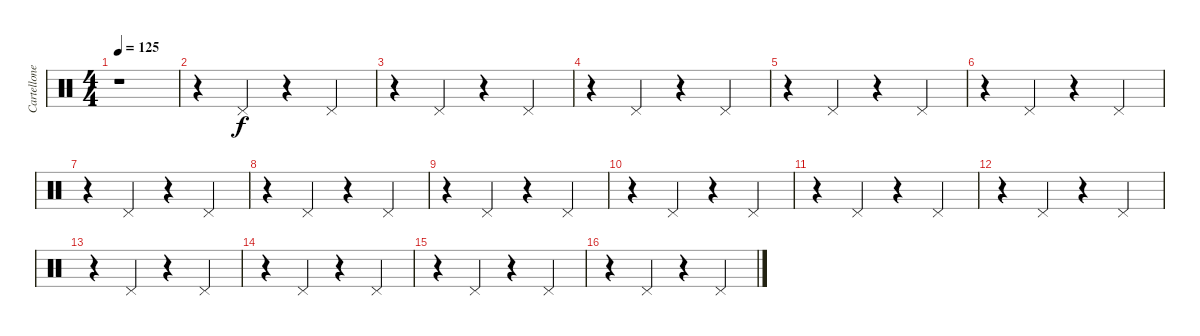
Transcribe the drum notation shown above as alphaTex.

\track ("Cartellone" "Cartellone") {instrument percussion}
\staff {score}
\articulation defaults
\ts (4 4)
\tempo 125
\clef neutral
\ks c
r.1{dy f} |
r.4 "Pedal Hi-Hat (hit)".4 r.4 "Pedal Hi-Hat (hit)".4 |
r.4 "Pedal Hi-Hat (hit)".4 r.4 "Pedal Hi-Hat (hit)".4 |
r.4 "Pedal Hi-Hat (hit)".4 r.4 "Pedal Hi-Hat (hit)".4 |
r.4 "Pedal Hi-Hat (hit)".4 r.4 "Pedal Hi-Hat (hit)".4 |
r.4 "Pedal Hi-Hat (hit)".4 r.4 "Pedal Hi-Hat (hit)".4 |
r.4 "Pedal Hi-Hat (hit)".4 r.4 "Pedal Hi-Hat (hit)".4 |
r.4 "Pedal Hi-Hat (hit)".4 r.4 "Pedal Hi-Hat (hit)".4 |
r.4 "Pedal Hi-Hat (hit)".4 r.4 "Pedal Hi-Hat (hit)".4 |
r.4 "Pedal Hi-Hat (hit)".4 r.4 "Pedal Hi-Hat (hit)".4 |
r.4 "Pedal Hi-Hat (hit)".4 r.4 "Pedal Hi-Hat (hit)".4 |
r.4 "Pedal Hi-Hat (hit)".4 r.4 "Pedal Hi-Hat (hit)".4 |
r.4 "Pedal Hi-Hat (hit)".4 r.4 "Pedal Hi-Hat (hit)".4 |
r.4 "Pedal Hi-Hat (hit)".4 r.4 "Pedal Hi-Hat (hit)".4 |
r.4 "Pedal Hi-Hat (hit)".4 r.4 "Pedal Hi-Hat (hit)".4 |
r.4 "Pedal Hi-Hat (hit)".4 r.4 "Pedal Hi-Hat (hit)".4
